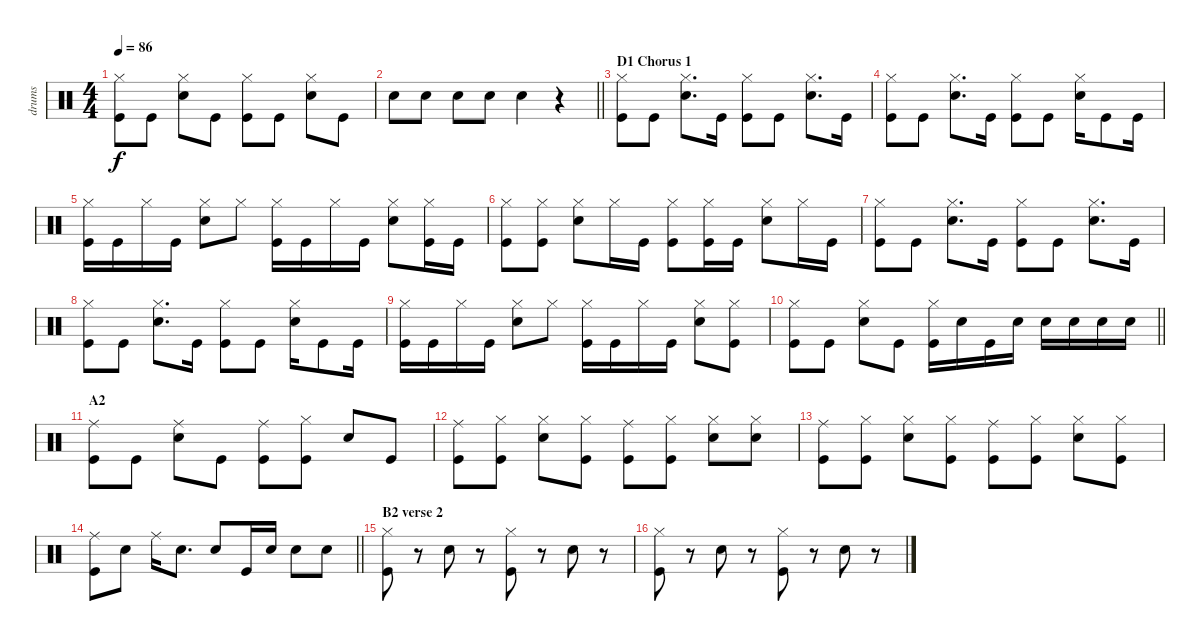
\track ("drums" "drums") {instrument percussion}
\staff {score}
\articulation defaults
\ts (4 4)
\tempo 86
\clef neutral
\ks c
("Hi-Hat (closed)" "Kick (hit)").8{dy f} "Kick (hit)".8 ("Snare (hit) 2" "Hi-Hat (closed)").8 "Kick (hit)".8 ("Hi-Hat (closed)" "Kick (hit)").8 "Kick (hit)".8 ("Snare (hit) 2" "Hi-Hat (closed)").8 "Kick (hit)".8 |
\barLineRight lightlight "Snare (hit) 2".8 "Snare (hit) 2".8 "Snare (hit) 2".8 "Snare (hit) 2".8 "Snare (hit) 2".4
r.4 |
\section ("" "D1 Chorus 1")
("Hi-Hat (closed)" "Kick (hit)").8 "Kick (hit)".8 ("Snare (hit) 2" "Hi-Hat (closed)").8{d} "Kick (hit)".16 ("Hi-Hat (closed)" "Kick (hit)").8 "Kick (hit)".8 ("Snare (hit) 2" "Hi-Hat (closed)").8{d} "Kick (hit)".16 |
("Hi-Hat (closed)" "Kick (hit)").8 "Kick (hit)".8 ("Snare (hit) 2" "Hi-Hat (closed)").8{d} "Kick (hit)".16 ("Hi-Hat (closed)" "Kick (hit)").8 "Kick (hit)".8 ("Snare (hit) 2" "Hi-Hat (closed)").16 "Kick (hit)".8 "Kick (hit)".16 |
("Hi-Hat (closed)" "Kick (hit)").16 "Kick (hit)".16 "Hi-Hat (closed)".16 "Kick (hit)".16 ("Snare (hit) 2" "Hi-Hat (closed)").8 "Hi-Hat (closed)".8 ("Hi-Hat (closed)" "Kick (hit)").16 "Kick (hit)".16 "Hi-Hat (closed)".16 "Kick (hit)".16 ("Snare (hit) 2" "Hi-Hat (closed)").8 ("Hi-Hat (closed)" "Kick (hit)").16 "Kick (hit)".16 |
("Hi-Hat (closed)" "Kick (hit)").8 ("Hi-Hat (closed)" "Kick (hit)").8 ("Snare (hit) 2" "Hi-Hat (closed)").8 "Hi-Hat (closed)".16 "Kick (hit)".16 ("Hi-Hat (closed)" "Kick (hit)").8 ("Hi-Hat (closed)" "Kick (hit)").16 "Kick (hit)".16 ("Snare (hit) 2" "Hi-Hat (closed)").8 "Hi-Hat (closed)".16 "Kick (hit)".16 |
("Hi-Hat (closed)" "Kick (hit)").8 "Kick (hit)".8 ("Snare (hit) 2" "Hi-Hat (closed)").8{d} "Kick (hit)".16 ("Hi-Hat (closed)" "Kick (hit)").8 "Kick (hit)".8 ("Snare (hit) 2" "Hi-Hat (closed)").8{d} "Kick (hit)".16 |
("Hi-Hat (closed)" "Kick (hit)").8 "Kick (hit)".8 ("Snare (hit) 2" "Hi-Hat (closed)").8{d} "Kick (hit)".16 ("Hi-Hat (closed)" "Kick (hit)").8 "Kick (hit)".8 ("Snare (hit) 2" "Hi-Hat (closed)").16 "Kick (hit)".8 "Kick (hit)".16 |
("Hi-Hat (closed)" "Kick (hit)").16 "Kick (hit)".16 "Hi-Hat (closed)".16 "Kick (hit)".16 ("Snare (hit) 2" "Hi-Hat (closed)").8 "Hi-Hat (closed)".8 ("Hi-Hat (closed)" "Kick (hit)").16 "Kick (hit)".16 "Hi-Hat (closed)".16 "Kick (hit)".16 ("Snare (hit) 2" "Hi-Hat (closed)").8 ("Hi-Hat (closed)" "Kick (hit)").8 |
\barLineRight lightlight
("Hi-Hat (closed)" "Kick (hit)").8 "Kick (hit)".8 ("Snare (hit) 2" "Hi-Hat (closed)").8 "Kick (hit)".8 ("Hi-Hat (closed)" "Kick (hit)").16 "Snare (hit) 2".16 "Kick (hit)".16 "Snare (hit) 2".16 "Snare (hit) 2".16 "Snare (hit) 2".16 "Snare (hit) 2".16 "Snare (hit) 2".16 |
\section ("" "A2")
("Ride (middle)" "Kick (hit)").8 "Kick (hit)".8 ("Ride (middle)" "Snare (hit) 2").8 "Kick (hit)".8 ("Ride (middle)" "Kick (hit)").8 ("Hi-Hat (closed)" "Kick (hit)").8 "Snare (hit) 2".8 "Kick (hit)".8 |
("Ride (middle)" "Kick (hit)").8 ("Hi-Hat (closed)" "Kick (hit)").8 ("Snare (hit) 2" "Hi-Hat (closed)").8 ("Hi-Hat (closed)" "Kick (hit)").8 ("Ride (middle)" "Kick (hit)").8 ("Hi-Hat (closed)" "Kick (hit)").8 ("Snare (hit) 2" "Hi-Hat (closed)").8 ("Snare (hit) 2" "Hi-Hat (closed)").8 |
("Ride (middle)" "Kick (hit)").8 ("Hi-Hat (closed)" "Kick (hit)").8 ("Snare (hit) 2" "Hi-Hat (closed)").8 ("Hi-Hat (closed)" "Kick (hit)").8 ("Ride (middle)" "Kick (hit)").8 ("Hi-Hat (closed)" "Kick (hit)").8 ("Snare (hit) 2" "Hi-Hat (closed)").8 ("Hi-Hat (closed)" "Kick (hit)").8 |
\barLineRight lightlight
("Ride (middle)" "Kick (hit)").8 "Snare (hit) 2".8 "Ride (middle)".16 "Snare (hit) 2".8{d} "Snare (hit) 2".8 "Kick (hit)".16 "Snare (hit) 2".16 "Snare (hit) 2".8 "Snare (hit) 2".8 |
\section ("" "B2 verse 2")
("Hi-Hat (closed)" "Kick (hit)").8 r.8 "Snare (hit) 2".8 r.8 ("Hi-Hat (closed)" "Kick (hit)").8 r.8 "Snare (hit) 2".8 r.8 |
("Hi-Hat (closed)" "Kick (hit)").8 r.8 "Snare (hit) 2".8 r.8 ("Hi-Hat (closed)" "Kick (hit)").8 r.8 "Snare (hit) 2".8 r.8
